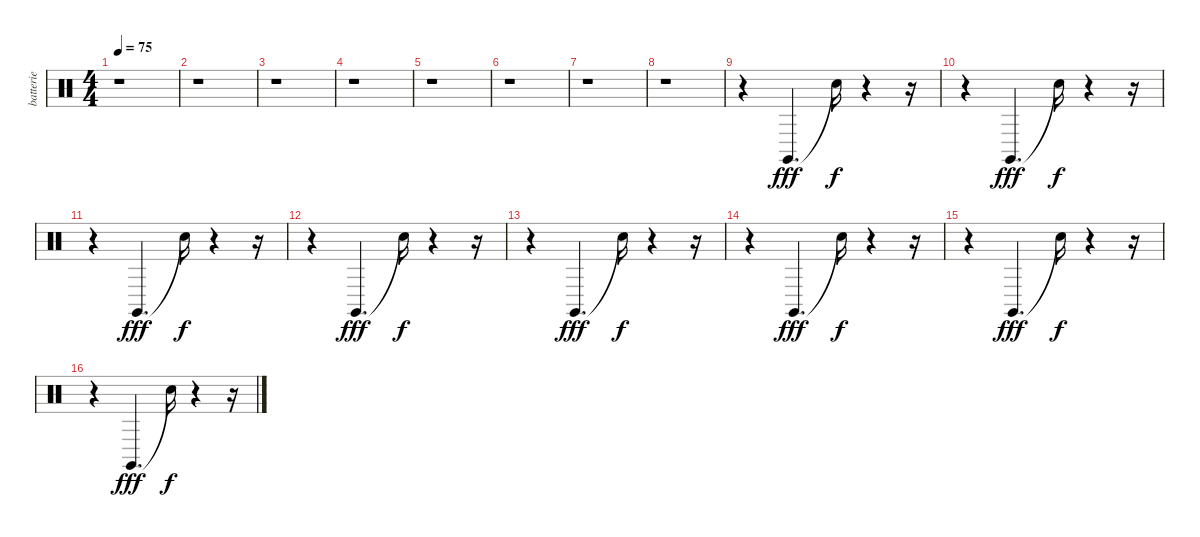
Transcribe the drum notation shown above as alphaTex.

\track ("batterie" "batterie") {instrument percussion}
\staff {score}
\articulation defaults
\ts (4 4)
\tempo 75
\clef neutral
\ks c
r.1{dy fff} |
r.1 |
r.1 |
r.1 |
r.1 |
r.1 |
r.1 |
r.1 |
r.4 "Claves (hit)".4{d} "Snare (hit)"{t}.16{dy f} r.4 r.16 |
r.4 "Claves (hit)".4{d dy fff} "Snare (hit)"{t}.16{dy f} r.4 r.16 |
r.4 "Claves (hit)".4{d dy fff} "Snare (hit)"{t}.16{dy f} r.4 r.16 |
r.4 "Claves (hit)".4{d dy fff} "Snare (hit)"{t}.16{dy f} r.4 r.16 |
r.4 "Claves (hit)".4{d dy fff} "Snare (hit)"{t}.16{dy f} r.4 r.16 |
r.4 "Claves (hit)".4{d dy fff} "Snare (hit)"{t}.16{dy f} r.4 r.16 |
r.4 "Claves (hit)".4{d dy fff} "Snare (hit)"{t}.16{dy f} r.4 r.16 |
r.4 "Claves (hit)".4{d dy fff} "Snare (hit)"{t}.16{dy f} r.4 r.16
